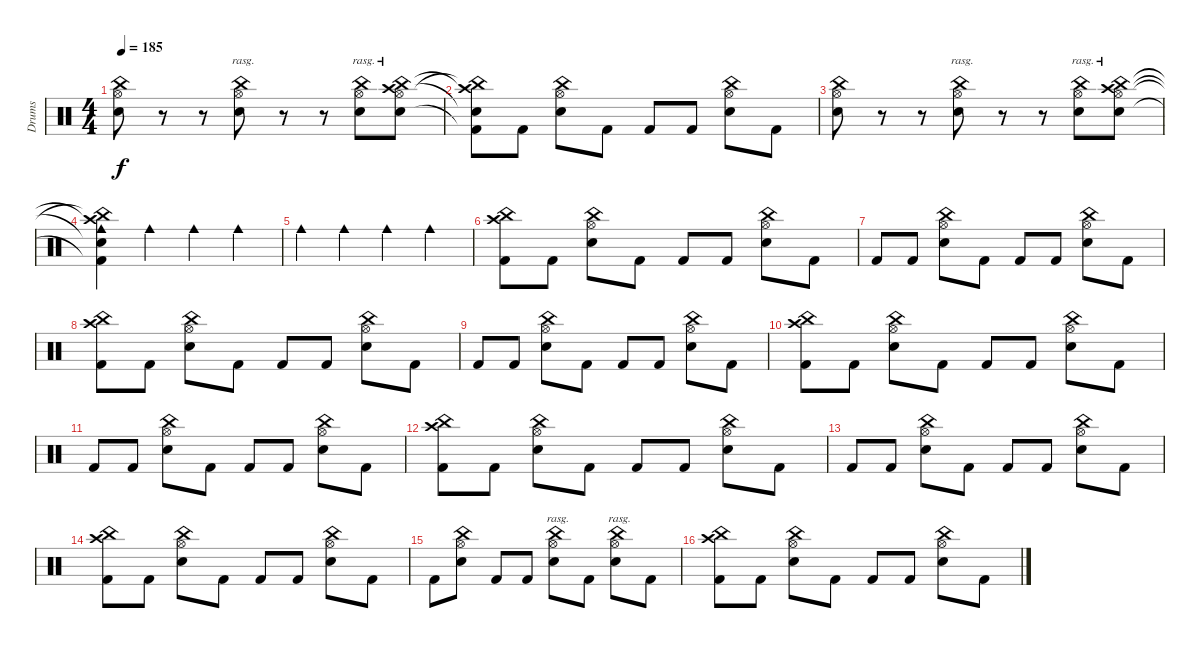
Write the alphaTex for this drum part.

\track ("Drums" "Drums") {instrument percussion}
\staff {score}
\articulation defaults
\ts (4 4)
\tempo 185
\clef neutral
\ks c
("China (hit)" "Hi-Hat (open)" "Snare (hit) 2").8{dy f} r.8 r.8 ("China (hit)" "Hi-Hat (open)" "Snare (hit) 2").8{bd 120 rasg ii} r.8 r.8 ("China (hit)" "Hi-Hat (open)" "Snare (hit) 2").8{bd 120 rasg ii} ("China (hit)" "Hi-Hat (open)" "Snare (hit) 2" "Crash high (hit)").8{bd 120 rasg ii} |
("Crash high (hit)"{t} "China (hit)"{t} "Kick (hit) 2"{t} "Snare (hit)"{t}).8 "Kick (hit) 2".8 ("China (hit)" "Hi-Hat (open)" "Snare (hit) 2").8 "Kick (hit) 2".8 "Kick (hit) 2".8 "Kick (hit) 2".8 ("China (hit)" "Hi-Hat (open)" "Snare (hit) 2").8 "Kick (hit) 2".8 |
("China (hit)" "Hi-Hat (open)" "Snare (hit) 2").8 r.8 r.8 ("China (hit)" "Hi-Hat (open)" "Snare (hit) 2").8{bd 120 rasg ii} r.8 r.8 ("China (hit)" "Hi-Hat (open)" "Snare (hit) 2").8{bd 120 rasg ii} ("China (hit)" "Hi-Hat (open)" "Snare (hit) 2" "Crash high (hit)").8{bd 120 rasg ii} |
("Crash high (hit)"{t} "China (hit)"{t} "Kick (hit) 2"{t} "Snare (hit)"{t} "Cowbell medium (hit)").4 "Cowbell medium (hit)".4 "Cowbell medium (hit)".4 "Cowbell medium (hit)".4 |
"Cowbell medium (hit)".4 "Cowbell medium (hit)".4 "Cowbell medium (hit)".4 "Cowbell medium (hit)".4 |
("Crash high (hit)" "China (hit)" "Kick (hit) 2").8 "Kick (hit) 2".8 ("China (hit)" "Hi-Hat (open)" "Snare (hit) 2").8 "Kick (hit) 2".8 "Kick (hit) 2".8 "Kick (hit) 2".8 ("China (hit)" "Hi-Hat (open)" "Snare (hit) 2").8 "Kick (hit) 2".8 |
"Kick (hit) 2".8 "Kick (hit) 2".8 ("China (hit)" "Hi-Hat (open)" "Snare (hit) 2").8 "Kick (hit) 2".8 "Kick (hit) 2".8 "Kick (hit) 2".8 ("China (hit)" "Hi-Hat (open)" "Snare (hit) 2").8 "Kick (hit) 2".8 |
("Crash high (hit)" "China (hit)" "Kick (hit) 2").8 "Kick (hit) 2".8 ("China (hit)" "Hi-Hat (open)" "Snare (hit) 2").8 "Kick (hit) 2".8 "Kick (hit) 2".8 "Kick (hit) 2".8 ("China (hit)" "Hi-Hat (open)" "Snare (hit) 2").8 "Kick (hit) 2".8 |
"Kick (hit) 2".8 "Kick (hit) 2".8 ("China (hit)" "Hi-Hat (open)" "Snare (hit) 2").8 "Kick (hit) 2".8 "Kick (hit) 2".8 "Kick (hit) 2".8 ("China (hit)" "Hi-Hat (open)" "Snare (hit) 2").8 "Kick (hit) 2".8 |
("Crash high (hit)" "China (hit)" "Kick (hit) 2").8 "Kick (hit) 2".8 ("China (hit)" "Hi-Hat (open)" "Snare (hit) 2").8 "Kick (hit) 2".8 "Kick (hit) 2".8 "Kick (hit) 2".8 ("China (hit)" "Hi-Hat (open)" "Snare (hit) 2").8 "Kick (hit) 2".8 |
"Kick (hit) 2".8 "Kick (hit) 2".8 ("China (hit)" "Hi-Hat (open)" "Snare (hit) 2").8 "Kick (hit) 2".8 "Kick (hit) 2".8 "Kick (hit) 2".8 ("China (hit)" "Hi-Hat (open)" "Snare (hit) 2").8 "Kick (hit) 2".8 |
("Crash high (hit)" "China (hit)" "Kick (hit) 2").8 "Kick (hit) 2".8 ("China (hit)" "Hi-Hat (open)" "Snare (hit) 2").8 "Kick (hit) 2".8 "Kick (hit) 2".8 "Kick (hit) 2".8 ("China (hit)" "Hi-Hat (open)" "Snare (hit) 2").8 "Kick (hit) 2".8 |
"Kick (hit) 2".8 "Kick (hit) 2".8 ("China (hit)" "Hi-Hat (open)" "Snare (hit) 2").8 "Kick (hit) 2".8 "Kick (hit) 2".8 "Kick (hit) 2".8 ("China (hit)" "Hi-Hat (open)" "Snare (hit) 2").8 "Kick (hit) 2".8 |
("Crash high (hit)" "China (hit)" "Kick (hit) 2").8 "Kick (hit) 2".8 ("China (hit)" "Hi-Hat (open)" "Snare (hit) 2").8 "Kick (hit) 2".8 "Kick (hit) 2".8 "Kick (hit) 2".8 ("China (hit)" "Hi-Hat (open)" "Snare (hit) 2").8 "Kick (hit) 2".8 |
"Kick (hit) 2".8 ("China (hit)" "Hi-Hat (open)" "Snare (hit) 2").8 "Kick (hit) 2".8 "Kick (hit) 2".8 ("China (hit)" "Hi-Hat (open)" "Snare (hit) 2").8{bd 120 rasg ii} "Kick (hit) 2".8 ("China (hit)" "Hi-Hat (open)" "Snare (hit) 2").8{bd 120 rasg ii} "Kick (hit) 2".8 |
("Crash high (hit)" "China (hit)" "Kick (hit) 2").8 "Kick (hit) 2".8 ("China (hit)" "Hi-Hat (open)" "Snare (hit) 2").8 "Kick (hit) 2".8 "Kick (hit) 2".8 "Kick (hit) 2".8 ("China (hit)" "Hi-Hat (open)" "Snare (hit) 2").8 "Kick (hit) 2".8
